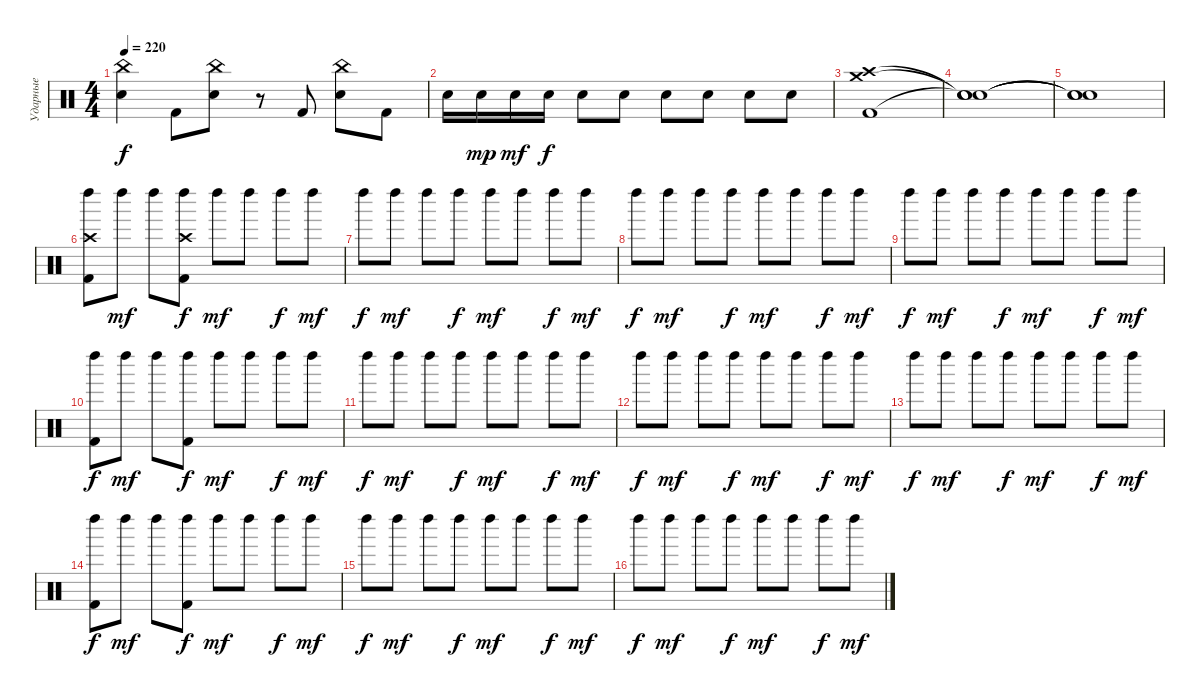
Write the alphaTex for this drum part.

\track ("Ударные" "Ударные") {instrument percussion}
\staff {score}
\articulation defaults
\ts (4 4)
\tempo 220
\clef neutral
\ks c
("China (hit)" "Electric Snare (hit)").4{dy f} "Kick (hit) 2".8 ("China (hit)" "Electric Snare (hit)").8 r.8 "Kick (hit) 2".8 ("China (hit)" "Electric Snare (hit)").8 "Kick (hit) 2".8 |
"Electric Snare (hit)".16 "Electric Snare (hit)".16{dy mp} "Electric Snare (hit)".16{dy mf} "Electric Snare (hit)".16{dy f} "Electric Snare (hit)".8 "Electric Snare (hit)".8 "Electric Snare (hit)".8 "Electric Snare (hit)".8 "Electric Snare (hit)".8 "Electric Snare (hit)".8 |
("Crash medium (hit)" "Crash high (hit)" "Kick (hit) 2").1 |
("Snare (hit)"{t} "Snare (hit)"{t} "Snare (hit)"{t}).1 |
("Snare (hit)"{t} "Snare (hit)"{t} "Snare (hit)"{t}).1 |
("Left Maraca (hit)" "Crash high (hit)" "Kick (hit) 2").8 "Left Maraca (hit)".8{dy mf} "Left Maraca (hit)".8 ("Left Maraca (hit)" "Crash high (hit)" "Kick (hit) 2").8{dy f} "Left Maraca (hit)".8{dy mf} "Left Maraca (hit)".8 "Left Maraca (hit)".8{dy f} "Left Maraca (hit)".8{dy mf} |
"Left Maraca (hit)".8{dy f} "Left Maraca (hit)".8{dy mf} "Left Maraca (hit)".8 "Left Maraca (hit)".8{dy f} "Left Maraca (hit)".8{dy mf} "Left Maraca (hit)".8 "Left Maraca (hit)".8{dy f} "Left Maraca (hit)".8{dy mf} |
"Left Maraca (hit)".8{dy f} "Left Maraca (hit)".8{dy mf} "Left Maraca (hit)".8 "Left Maraca (hit)".8{dy f} "Left Maraca (hit)".8{dy mf} "Left Maraca (hit)".8 "Left Maraca (hit)".8{dy f} "Left Maraca (hit)".8{dy mf} |
"Left Maraca (hit)".8{dy f} "Left Maraca (hit)".8{dy mf} "Left Maraca (hit)".8 "Left Maraca (hit)".8{dy f} "Left Maraca (hit)".8{dy mf} "Left Maraca (hit)".8 "Left Maraca (hit)".8{dy f} "Left Maraca (hit)".8{dy mf} |
("Kick (hit) 2" "Left Maraca (hit)").8{dy f} "Left Maraca (hit)".8{dy mf} "Left Maraca (hit)".8 ("Kick (hit) 2" "Left Maraca (hit)").8{dy f} "Left Maraca (hit)".8{dy mf} "Left Maraca (hit)".8 "Left Maraca (hit)".8{dy f} "Left Maraca (hit)".8{dy mf} |
"Left Maraca (hit)".8{dy f} "Left Maraca (hit)".8{dy mf} "Left Maraca (hit)".8 "Left Maraca (hit)".8{dy f} "Left Maraca (hit)".8{dy mf} "Left Maraca (hit)".8 "Left Maraca (hit)".8{dy f} "Left Maraca (hit)".8{dy mf} |
"Left Maraca (hit)".8{dy f} "Left Maraca (hit)".8{dy mf} "Left Maraca (hit)".8 "Left Maraca (hit)".8{dy f} "Left Maraca (hit)".8{dy mf} "Left Maraca (hit)".8 "Left Maraca (hit)".8{dy f} "Left Maraca (hit)".8{dy mf} |
"Left Maraca (hit)".8{dy f} "Left Maraca (hit)".8{dy mf} "Left Maraca (hit)".8 "Left Maraca (hit)".8{dy f} "Left Maraca (hit)".8{dy mf} "Left Maraca (hit)".8 "Left Maraca (hit)".8{dy f} "Left Maraca (hit)".8{dy mf} |
("Left Maraca (hit)" "Kick (hit) 2").8{dy f} "Left Maraca (hit)".8{dy mf} "Left Maraca (hit)".8 ("Left Maraca (hit)" "Kick (hit) 2").8{dy f} "Left Maraca (hit)".8{dy mf} "Left Maraca (hit)".8 "Left Maraca (hit)".8{dy f} "Left Maraca (hit)".8{dy mf} |
"Left Maraca (hit)".8{dy f} "Left Maraca (hit)".8{dy mf} "Left Maraca (hit)".8 "Left Maraca (hit)".8{dy f} "Left Maraca (hit)".8{dy mf} "Left Maraca (hit)".8 "Left Maraca (hit)".8{dy f} "Left Maraca (hit)".8{dy mf} |
"Left Maraca (hit)".8{dy f} "Left Maraca (hit)".8{dy mf} "Left Maraca (hit)".8 "Left Maraca (hit)".8{dy f} "Left Maraca (hit)".8{dy mf} "Left Maraca (hit)".8 "Left Maraca (hit)".8{dy f} "Left Maraca (hit)".8{dy mf}
